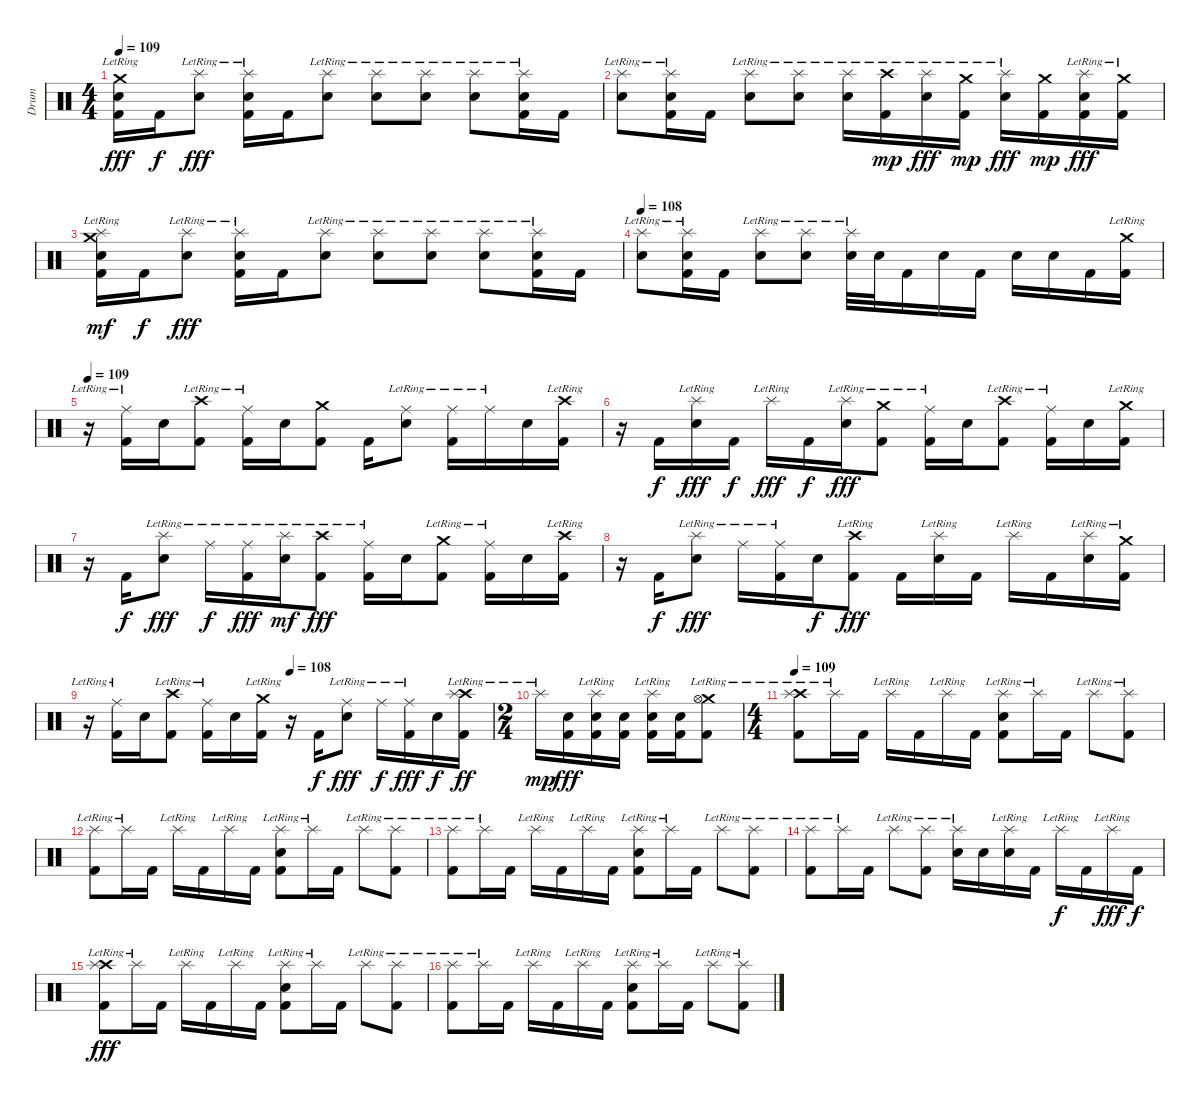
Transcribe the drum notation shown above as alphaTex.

\track ("Drum" "Drum") {instrument percussion}
\staff {score}
\articulation defaults
\ts (4 4)
\tempo 109
\clef neutral
\ks c
("Crash medium (hit)"{lr} "Electric Snare (hit)" "Kick (hit) 2").16{dy fff} "Kick (hit) 2".16{dy f} ("Splash (hit)"{lr} "Electric Snare (hit)").8{dy fff} ("Splash (hit)"{lr} "Electric Snare (hit)" "Kick (hit) 2").16 "Kick (hit) 2".16 ("Splash (hit)"{lr} "Electric Snare (hit)").8 ("Splash (hit)"{lr} "Electric Snare (hit)").8 ("Splash (hit)"{lr} "Electric Snare (hit)").8 ("Splash (hit)"{lr} "Electric Snare (hit)").8 ("Splash (hit)"{lr} "Electric Snare (hit)" "Kick (hit) 2").16 "Kick (hit) 2".16 |
("Splash (hit)"{lr} "Electric Snare (hit)").8 ("Splash (hit)"{lr} "Electric Snare (hit)" "Kick (hit) 2").16 "Kick (hit) 2".16 ("Splash (hit)"{lr} "Electric Snare (hit)").8 ("Splash (hit)"{lr} "Electric Snare (hit)").8 ("Splash (hit)"{lr} "Electric Snare (hit)").16 ("Crash high (hit)"{lr} "Kick (hit) 2").16{dy mp} ("Splash (hit)"{lr} "Electric Snare (hit)").16{dy fff} ("Crash medium (hit)"{lr} "Kick (hit) 2").16{dy mp} ("Splash (hit)"{lr} "Electric Snare (hit)").16{dy fff} ("Crash medium (hit)" "Kick (hit) 2").16{dy mp} ("Splash (hit)"{lr} "Electric Snare (hit)" "Kick (hit) 2").16{dy fff} ("Crash medium (hit)"{lr} "Kick (hit) 2").16 |
("Crash medium (hit)"{lr} "Splash (hit)"{lr} "Electric Snare (hit)" "Kick (hit) 2").16{dy mf} "Kick (hit) 2".16{dy f} ("Splash (hit)"{lr} "Electric Snare (hit)").8{dy fff} ("Splash (hit)"{lr} "Electric Snare (hit)" "Kick (hit) 2").16 "Kick (hit) 2".16 ("Splash (hit)"{lr} "Electric Snare (hit)").8 ("Splash (hit)"{lr} "Electric Snare (hit)").8 ("Splash (hit)"{lr} "Electric Snare (hit)").8 ("Splash (hit)"{lr} "Electric Snare (hit)").8 ("Splash (hit)"{lr} "Electric Snare (hit)" "Kick (hit) 2").16 "Kick (hit) 2".16 |
\tempo 108
("Splash (hit)"{lr} "Electric Snare (hit)").8 ("Splash (hit)"{lr} "Electric Snare (hit)" "Kick (hit) 2").16 "Kick (hit) 2".16 ("Splash (hit)"{lr} "Electric Snare (hit)").8 ("Splash (hit)"{lr} "Electric Snare (hit)").8 ("Splash (hit)"{lr} "Electric Snare (hit)").32 "Electric Snare (hit)".32 "Kick (hit) 2".16 "Electric Snare (hit)".16 "Kick (hit) 2".16 "Electric Snare (hit)".16 "Electric Snare (hit)".16 "Kick (hit) 2".16 ("Crash medium (hit)"{lr} "Kick (hit) 2").16 |
\tempo 109
r.16 ("Ride (middle)"{lr} "Kick (hit) 2").16 "Electric Snare (hit)".16 ("Crash high (hit)"{lr} "Kick (hit) 2").8 ("Ride (middle)"{lr} "Kick (hit) 2").16 "Electric Snare (hit)".16 ("Crash medium (hit)" "Kick (hit) 2").8 "Kick (hit) 2".16 ("Ride (middle)"{lr} "Electric Snare (hit)").8 ("Ride (middle)"{lr} "Kick (hit) 2").16 "Ride (middle)"{lr}.16 "Electric Snare (hit)".16 ("Crash high (hit)"{lr} "Kick (hit) 2").16 |
r.16 "Kick (hit) 2".16{dy f} ("Splash (hit)"{lr} "Electric Snare (hit)").16{dy fff} "Kick (hit) 2".16{dy f} "Splash (hit)"{lr}.16{dy fff} "Kick (hit) 2".16{dy f} ("Splash (hit)"{lr} "Electric Snare (hit)").16{dy fff} ("Crash medium (hit)"{lr} "Kick (hit) 2").8 ("Ride (middle)"{lr} "Kick (hit) 2").16 "Electric Snare (hit)".16 ("Crash high (hit)"{lr} "Kick (hit) 2").8 ("Ride (middle)"{lr} "Kick (hit) 2").16 "Electric Snare (hit)".16 ("Crash medium (hit)"{lr} "Kick (hit) 2").16 |
r.16 "Kick (hit) 2".16{dy f} ("Splash (hit)"{lr} "Electric Snare (hit)").8{dy fff} "Ride (middle)"{lr}.16{dy f} ("Ride (middle)"{lr} "Kick (hit) 2").16{dy fff} ("Splash (hit)"{lr} "Electric Snare (hit)").16{dy mf} ("Crash high (hit)"{lr} "Kick (hit) 2").8{dy fff} ("Ride (middle)"{lr} "Kick (hit) 2").16 "Electric Snare (hit)".16 ("Crash medium (hit)"{lr} "Kick (hit) 2").8 ("Ride (middle)"{lr} "Kick (hit) 2").16 "Electric Snare (hit)".16 ("Crash high (hit)"{lr} "Kick (hit) 2").16 |
r.16 "Kick (hit) 2".16{dy f} ("Splash (hit)"{lr} "Electric Snare (hit)").8{dy fff} "Ride (middle)"{lr}.16 ("Ride (middle)"{lr} "Kick (hit) 2").16 "Electric Snare (hit)".16{dy f} ("Crash high (hit)"{lr} "Kick (hit) 2").8{dy fff} "Kick (hit) 2".16 ("Splash (hit)"{lr} "Electric Snare (hit)").16 "Kick (hit) 2".16 "Splash (hit)"{lr}.16 "Kick (hit) 2".16 ("Splash (hit)"{lr} "Electric Snare (hit)").16 ("Crash medium (hit)"{lr} "Kick (hit) 2").16 |
\tempo (108 0.5)
r.16 ("Ride (middle)"{lr} "Kick (hit) 2").16 "Electric Snare (hit)".16 ("Crash high (hit)"{lr} "Kick (hit) 2").8 ("Ride (middle)"{lr} "Kick (hit) 2").16 "Electric Snare (hit)".16 ("Crash medium (hit)"{lr} "Kick (hit) 2").16 r.16 "Kick (hit) 2".16{dy f} ("Ride (middle)"{lr} "Electric Snare (hit)").8{dy fff} "Ride (middle)"{lr}.16{dy f} ("Ride (middle)"{lr} "Kick (hit) 2").16{dy fff} "Electric Snare (hit)".16{dy f} ("Crash high (hit)"{lr} "Splash (hit)"{lr} "Kick (hit) 2").16{dy ff} |
\ts (2 4)
"Splash (hit)"{lr}.16{dy mp} ("Electric Snare (hit)" "Kick (hit) 2").16{dy fff} ("Splash (hit)"{lr} "Electric Snare (hit)" "Kick (hit) 2").16 ("Electric Snare (hit)" "Kick (hit) 2").16 ("Splash (hit)"{lr} "Electric Snare (hit)" "Kick (hit) 2").16 ("Electric Snare (hit)" "Kick (hit) 2").16 ("Crash medium (hit)"{lr} "Hi-Hat (open)"{lr} "Kick (hit) 2").8 |
\ts (4 4)
\tempo 109
("Crash high (hit)"{lr} "Splash (hit)"{lr} "Kick (hit) 2").8 "Splash (hit)"{lr}.16 "Kick (hit) 2".16 "Splash (hit)"{lr}.16 "Kick (hit) 2".16 "Splash (hit)"{lr}.16 "Kick (hit) 2".16 ("Splash (hit)"{lr} "Electric Snare (hit)" "Kick (hit) 2").8 "Splash (hit)"{lr}.16 "Kick (hit) 2".16 "Splash (hit)"{lr}.8 ("Splash (hit)"{lr} "Kick (hit) 2").8 |
("Splash (hit)"{lr} "Kick (hit) 2").8 "Splash (hit)"{lr}.16 "Kick (hit) 2".16 "Splash (hit)"{lr}.16 "Kick (hit) 2".16 "Splash (hit)"{lr}.16 "Kick (hit) 2".16 ("Splash (hit)"{lr} "Electric Snare (hit)" "Kick (hit) 2").8 "Splash (hit)"{lr}.16 "Kick (hit) 2".16 "Splash (hit)"{lr}.8 ("Splash (hit)"{lr} "Kick (hit) 2").8 |
("Splash (hit)"{lr} "Kick (hit) 2").8 "Splash (hit)"{lr}.16 "Kick (hit) 2".16 "Splash (hit)"{lr}.16 "Kick (hit) 2".16 "Splash (hit)"{lr}.16 "Kick (hit) 2".16 ("Splash (hit)"{lr} "Electric Snare (hit)" "Kick (hit) 2").8 "Splash (hit)"{lr}.16 "Kick (hit) 2".16 "Splash (hit)"{lr}.8 ("Splash (hit)"{lr} "Kick (hit) 2").8 |
("Splash (hit)"{lr} "Kick (hit) 2").8 "Splash (hit)"{lr}.16 "Kick (hit) 2".16 "Splash (hit)"{lr}.8 ("Splash (hit)"{lr} "Kick (hit) 2").8 ("Splash (hit)"{lr} "Electric Snare (hit)").16 "Electric Snare (hit)".16 ("Splash (hit)"{lr} "Electric Snare (hit)").16 "Kick (hit) 2".16 "Splash (hit)"{lr}.16{dy f} "Kick (hit) 2".16 "Splash (hit)"{lr}.16{dy fff} "Kick (hit) 2".16{dy f} |
("Crash high (hit)"{lr} "Splash (hit)"{lr} "Kick (hit) 2").8{dy fff} "Splash (hit)"{lr}.16 "Kick (hit) 2".16 "Splash (hit)"{lr}.16 "Kick (hit) 2".16 "Splash (hit)"{lr}.16 "Kick (hit) 2".16 ("Splash (hit)"{lr} "Electric Snare (hit)" "Kick (hit) 2").8 "Splash (hit)"{lr}.16 "Kick (hit) 2".16 "Splash (hit)"{lr}.8 ("Splash (hit)"{lr} "Kick (hit) 2").8 |
("Splash (hit)"{lr} "Kick (hit) 2").8 "Splash (hit)"{lr}.16 "Kick (hit) 2".16 "Splash (hit)"{lr}.16 "Kick (hit) 2".16 "Splash (hit)"{lr}.16 "Kick (hit) 2".16 ("Splash (hit)"{lr} "Electric Snare (hit)" "Kick (hit) 2").8 "Splash (hit)"{lr}.16 "Kick (hit) 2".16 "Splash (hit)"{lr}.8 ("Splash (hit)"{lr} "Kick (hit) 2").8
